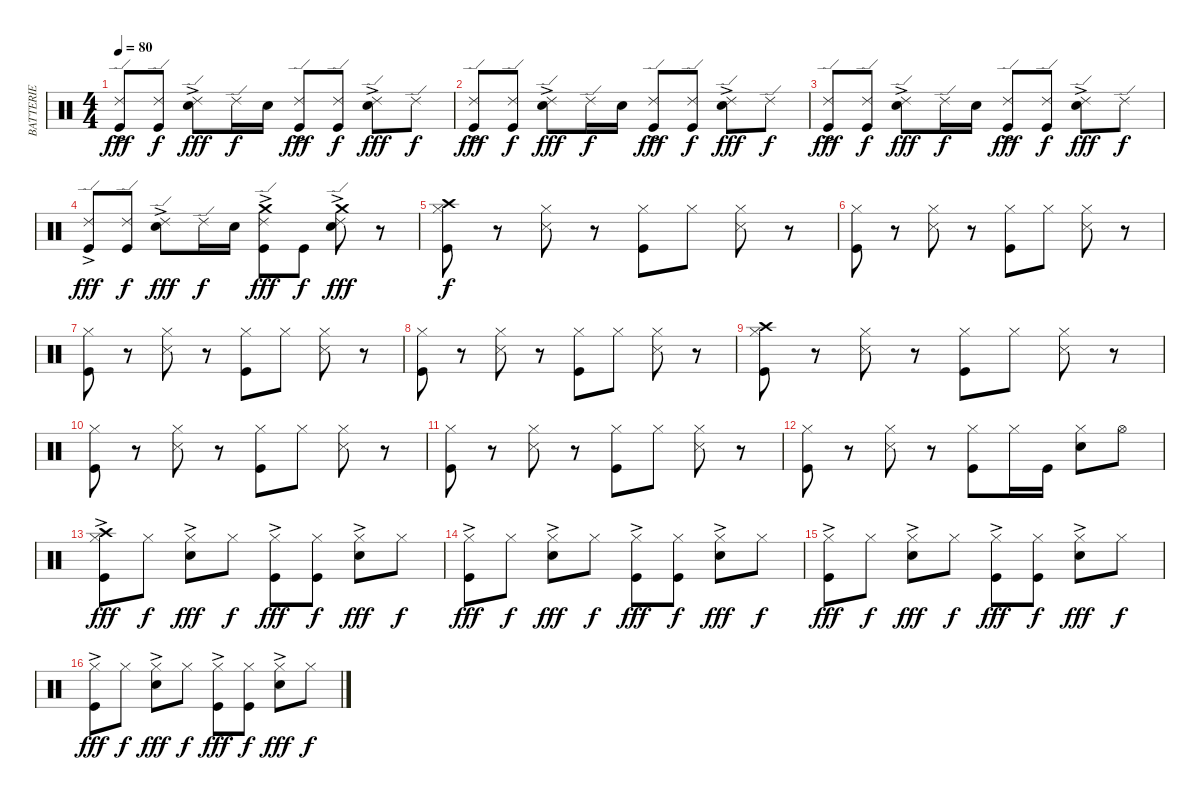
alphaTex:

\track ("BATTERIE" "BATTERIE") {instrument percussion}
\staff {score}
\articulation defaults
\ts (4 4)
\tempo 80
\clef neutral
\ks c
("Ride (edge) 2"{ac} "Kick (hit)").8{dy fff} ("Ride (edge) 2" "Kick (hit)").8{dy f} ("Ride (edge) 2"{ac} "Electric Snare (hit)").8{dy fff} "Ride (edge) 2".16{dy f} "Electric Snare (hit)".16 ("Ride (edge) 2"{ac} "Kick (hit)").8{dy fff} ("Ride (edge) 2" "Kick (hit)").8{dy f} ("Ride (edge) 2"{ac} "Electric Snare (hit)").8{dy fff} "Ride (edge) 2".8{dy f} |
("Ride (edge) 2"{ac} "Kick (hit)").8{dy fff} ("Ride (edge) 2" "Kick (hit)").8{dy f} ("Ride (edge) 2"{ac} "Electric Snare (hit)").8{dy fff} "Ride (edge) 2".16{dy f} "Electric Snare (hit)".16 ("Ride (edge) 2"{ac} "Kick (hit)").8{dy fff} ("Ride (edge) 2" "Kick (hit)").8{dy f} ("Ride (edge) 2"{ac} "Electric Snare (hit)").8{dy fff} "Ride (edge) 2".8{dy f} |
("Ride (edge) 2"{ac} "Kick (hit)").8{dy fff} ("Ride (edge) 2" "Kick (hit)").8{dy f} ("Ride (edge) 2"{ac} "Electric Snare (hit)").8{dy fff} "Ride (edge) 2".16{dy f} "Electric Snare (hit)".16 ("Ride (edge) 2"{ac} "Kick (hit)").8{dy fff} ("Ride (edge) 2" "Kick (hit)").8{dy f} ("Ride (edge) 2"{ac} "Electric Snare (hit)").8{dy fff} "Ride (edge) 2".8{dy f} |
("Ride (edge) 2"{ac} "Kick (hit)").8{dy fff} ("Ride (edge) 2" "Kick (hit)").8{dy f} ("Ride (edge) 2"{ac} "Electric Snare (hit)").8{dy fff} "Ride (edge) 2".16{dy f} "Electric Snare (hit)".16 ("Ride (edge) 2"{ac} "Crash medium (hit)" "Kick (hit)").8{dy fff} "Kick (hit)".8{dy f} ("Ride (edge) 2"{ac} "Electric Snare (hit)" "Crash medium (hit)").8{dy fff} r.8 |
("Hi-Hat (closed)" "Crash high (hit)" "Kick (hit)").8{dy f} r.8 ("Hi-Hat (closed)" "Snare (side stick) 3").8 r.8 ("Hi-Hat (closed)" "Kick (hit)").8 "Hi-Hat (closed)".8 ("Hi-Hat (closed)" "Snare (side stick) 3").8 r.8 |
("Hi-Hat (closed)" "Kick (hit)").8 r.8 ("Hi-Hat (closed)" "Snare (side stick) 3").8 r.8 ("Hi-Hat (closed)" "Kick (hit)").8 "Hi-Hat (closed)".8 ("Hi-Hat (closed)" "Snare (side stick) 3").8 r.8 |
("Hi-Hat (closed)" "Kick (hit)").8 r.8 ("Hi-Hat (closed)" "Snare (side stick) 3").8 r.8 ("Hi-Hat (closed)" "Kick (hit)").8 "Hi-Hat (closed)".8 ("Hi-Hat (closed)" "Snare (side stick) 3").8 r.8 |
("Hi-Hat (closed)" "Kick (hit)").8 r.8 ("Hi-Hat (closed)" "Snare (side stick) 3").8 r.8 ("Hi-Hat (closed)" "Kick (hit)").8 "Hi-Hat (closed)".8 ("Hi-Hat (closed)" "Snare (side stick) 3").8 r.8 |
("Hi-Hat (closed)" "Crash high (hit)" "Kick (hit)").8 r.8 ("Hi-Hat (closed)" "Snare (side stick) 3").8 r.8 ("Hi-Hat (closed)" "Kick (hit)").8 "Hi-Hat (closed)".8 ("Hi-Hat (closed)" "Snare (side stick) 3").8 r.8 |
("Hi-Hat (closed)" "Kick (hit)").8 r.8 ("Hi-Hat (closed)" "Snare (side stick) 3").8 r.8 ("Hi-Hat (closed)" "Kick (hit)").8 "Hi-Hat (closed)".8 ("Hi-Hat (closed)" "Snare (side stick) 3").8 r.8 |
("Hi-Hat (closed)" "Kick (hit)").8 r.8 ("Hi-Hat (closed)" "Snare (side stick) 3").8 r.8 ("Hi-Hat (closed)" "Kick (hit)").8 "Hi-Hat (closed)".8 ("Hi-Hat (closed)" "Snare (side stick) 3").8 r.8 |
("Hi-Hat (closed)" "Kick (hit)").8 r.8 ("Hi-Hat (closed)" "Snare (side stick) 3").8 r.8 ("Hi-Hat (closed)" "Kick (hit)").8 "Hi-Hat (closed)".16 "Kick (hit)".16 ("Hi-Hat (closed)" "Electric Snare (hit)").8 "Hi-Hat (open)".8 |
("Hi-Hat (closed)"{ac} "Crash high (hit)" "Kick (hit)").8{dy fff} "Hi-Hat (closed)".8{dy f} ("Hi-Hat (closed)"{ac} "Electric Snare (hit)").8{dy fff} "Hi-Hat (closed)".8{dy f} ("Hi-Hat (closed)"{ac} "Kick (hit)").8{dy fff} ("Hi-Hat (closed)" "Kick (hit)").8{dy f} ("Hi-Hat (closed)"{ac} "Electric Snare (hit)").8{dy fff} "Hi-Hat (closed)".8{dy f} |
("Hi-Hat (closed)"{ac} "Kick (hit)").8{dy fff} "Hi-Hat (closed)".8{dy f} ("Hi-Hat (closed)"{ac} "Electric Snare (hit)").8{dy fff} "Hi-Hat (closed)".8{dy f} ("Hi-Hat (closed)"{ac} "Kick (hit)").8{dy fff} ("Hi-Hat (closed)" "Kick (hit)").8{dy f} ("Hi-Hat (closed)"{ac} "Electric Snare (hit)").8{dy fff} "Hi-Hat (closed)".8{dy f} |
("Hi-Hat (closed)"{ac} "Kick (hit)").8{dy fff} "Hi-Hat (closed)".8{dy f} ("Hi-Hat (closed)"{ac} "Electric Snare (hit)").8{dy fff} "Hi-Hat (closed)".8{dy f} ("Hi-Hat (closed)"{ac} "Kick (hit)").8{dy fff} ("Hi-Hat (closed)" "Kick (hit)").8{dy f} ("Hi-Hat (closed)"{ac} "Electric Snare (hit)").8{dy fff} "Hi-Hat (closed)".8{dy f} |
("Hi-Hat (closed)"{ac} "Kick (hit)").8{dy fff} "Hi-Hat (closed)".8{dy f} ("Hi-Hat (closed)"{ac} "Electric Snare (hit)").8{dy fff} "Hi-Hat (closed)".8{dy f} ("Hi-Hat (closed)"{ac} "Kick (hit)").8{dy fff} ("Hi-Hat (closed)" "Kick (hit)").8{dy f} ("Hi-Hat (closed)"{ac} "Electric Snare (hit)").8{dy fff} "Hi-Hat (closed)".8{dy f}
